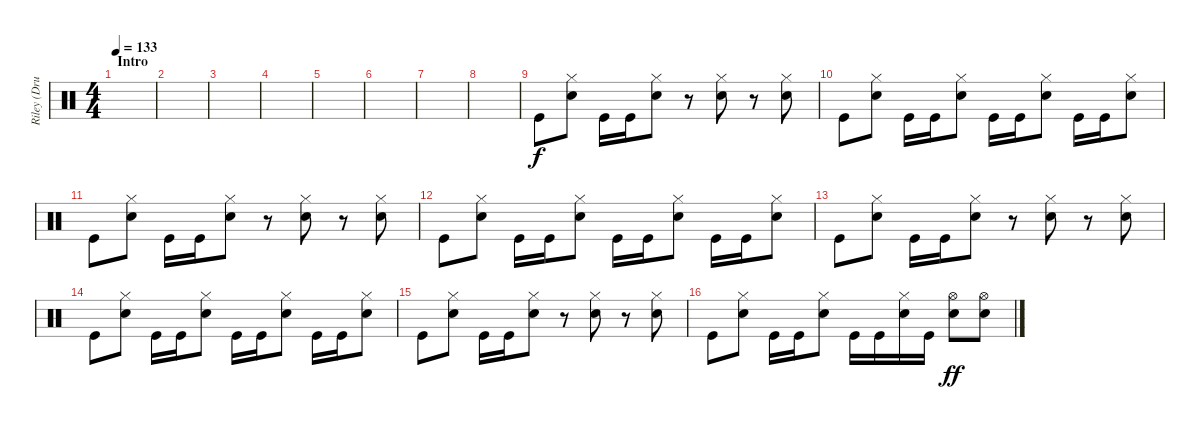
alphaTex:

\track ("Riley (Drums)" "Riley (Dru") {instrument percussion}
\staff {score}
\articulation defaults
\ts (4 4)
\section ("" "Intro")
\tempo 133
\clef neutral
\ks c
|
|
|
|
|
|
|
|
"Kick (hit)".8 ("Hi-Hat (closed)" "Electric Snare (hit)").8 "Kick (hit)".16 "Kick (hit)".16 ("Hi-Hat (closed)" "Electric Snare (hit)").8 r.8 ("Hi-Hat (closed)" "Electric Snare (hit)").8 r.8 ("Hi-Hat (closed)" "Electric Snare (hit)").8 |
"Kick (hit)".8 ("Hi-Hat (closed)" "Electric Snare (hit)").8 "Kick (hit)".16 "Kick (hit)".16 ("Hi-Hat (closed)" "Electric Snare (hit)").8 "Kick (hit)".16 "Kick (hit)".16 ("Hi-Hat (closed)" "Electric Snare (hit)").8 "Kick (hit)".16 "Kick (hit)".16 ("Hi-Hat (closed)" "Electric Snare (hit)").8 |
"Kick (hit)".8 ("Hi-Hat (closed)" "Electric Snare (hit)").8 "Kick (hit)".16 "Kick (hit)".16 ("Hi-Hat (closed)" "Electric Snare (hit)").8 r.8 ("Hi-Hat (closed)" "Electric Snare (hit)").8 r.8 ("Hi-Hat (closed)" "Electric Snare (hit)").8 |
"Kick (hit)".8 ("Hi-Hat (closed)" "Electric Snare (hit)").8 "Kick (hit)".16 "Kick (hit)".16 ("Hi-Hat (closed)" "Electric Snare (hit)").8 "Kick (hit)".16 "Kick (hit)".16 ("Hi-Hat (closed)" "Electric Snare (hit)").8 "Kick (hit)".16 "Kick (hit)".16 ("Hi-Hat (closed)" "Electric Snare (hit)").8 |
"Kick (hit)".8 ("Hi-Hat (closed)" "Electric Snare (hit)").8 "Kick (hit)".16 "Kick (hit)".16 ("Hi-Hat (closed)" "Electric Snare (hit)").8 r.8 ("Hi-Hat (closed)" "Electric Snare (hit)").8 r.8 ("Hi-Hat (closed)" "Electric Snare (hit)").8 |
"Kick (hit)".8 ("Hi-Hat (closed)" "Electric Snare (hit)").8 "Kick (hit)".16 "Kick (hit)".16 ("Hi-Hat (closed)" "Electric Snare (hit)").8 "Kick (hit)".16 "Kick (hit)".16 ("Hi-Hat (closed)" "Electric Snare (hit)").8 "Kick (hit)".16 "Kick (hit)".16 ("Hi-Hat (closed)" "Electric Snare (hit)").8 |
"Kick (hit)".8 ("Hi-Hat (closed)" "Electric Snare (hit)").8 "Kick (hit)".16 "Kick (hit)".16 ("Hi-Hat (closed)" "Electric Snare (hit)").8 r.8 ("Hi-Hat (closed)" "Electric Snare (hit)").8 r.8 ("Hi-Hat (closed)" "Electric Snare (hit)").8 |
"Kick (hit)".8 ("Hi-Hat (closed)" "Electric Snare (hit)").8 "Kick (hit)".16 "Kick (hit)".16 ("Hi-Hat (closed)" "Electric Snare (hit)").8{dy f} "Kick (hit)".16 "Kick (hit)".16 ("Hi-Hat (closed)" "Electric Snare (hit)").16 "Kick (hit)".16 ("Hi-Hat (open)" "Electric Snare (hit)").8{dy ff} ("Hi-Hat (open)" "Electric Snare (hit)").8
